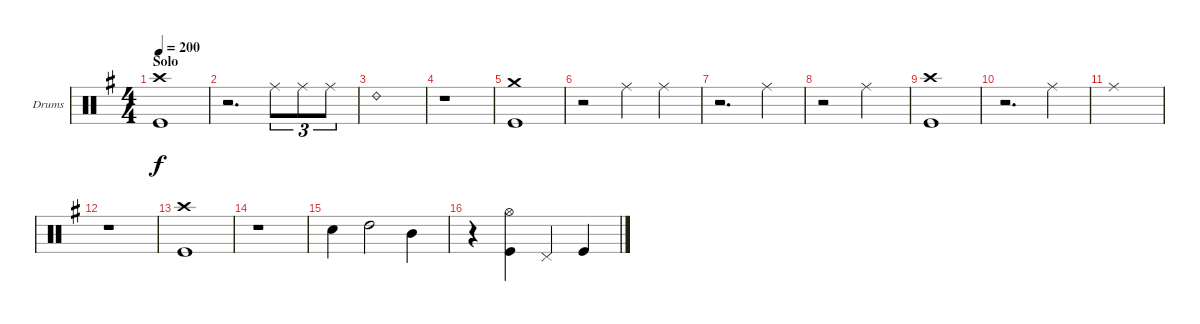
\bracketExtendMode groupsimilarinstruments
\firstSystemTrackNameOrientation horizontal
\otherSystemsTrackNameOrientation horizontal
\track ("Drumkit" "Drums") {instrument percussion}
\staff {score}
\articulation defaults
\ts (4 4)
\section ("" "Solo")
\tempo 200
\clef neutral
\ks g
("Crash high (hit)" "Kick (hit)").1{dy f} |
r.2{d} "Ride (middle)".8{tu (3 2)} "Ride (middle)".8{tu (3 2)} "Ride (middle)".8{tu (3 2)} |
"Ride (bell) 2".1 |
r.1 |
("Crash medium (hit)" "Kick (hit)").1 |
r.2 "Ride (middle)".4 "Ride (middle)".4 |
r.2{d} "Ride (middle)".4 |
r.2 "Ride (middle)".2 |
("Crash high (hit)" "Kick (hit)").1 |
r.2{d} "Ride (middle)".4 |
"Ride (middle)".1 |
r.1 |
("Crash high (hit)" "Kick (hit)").1 |
r.1 |
"Snare (hit) 2".4 "High Tom (hit)".2 "Mid Tom (hit)".4 |
r.4 ("Hi-Hat (open)" "Kick (hit)").4 "Pedal Hi-Hat (hit)".4 "Kick (hit)".4
